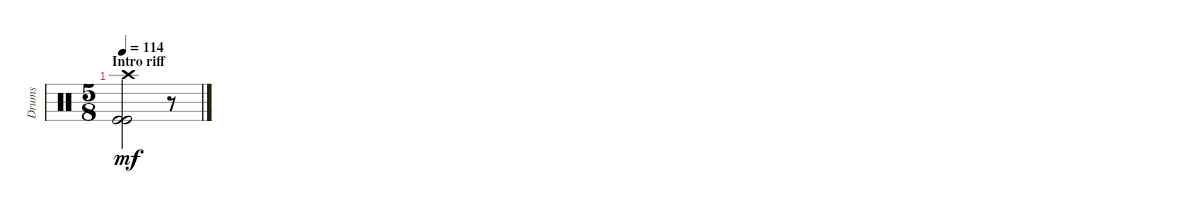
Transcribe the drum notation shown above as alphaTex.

\track ("Drums" "Drums") {instrument percussion}
\staff {score}
\articulation defaults
\ts (5 8)
\section ("" "Intro riff")
\tempo 114
\clef neutral
\ks c
("Kick (hit)" "Kick (hit)" "Crash high (hit)").2{dy mf} r.8
